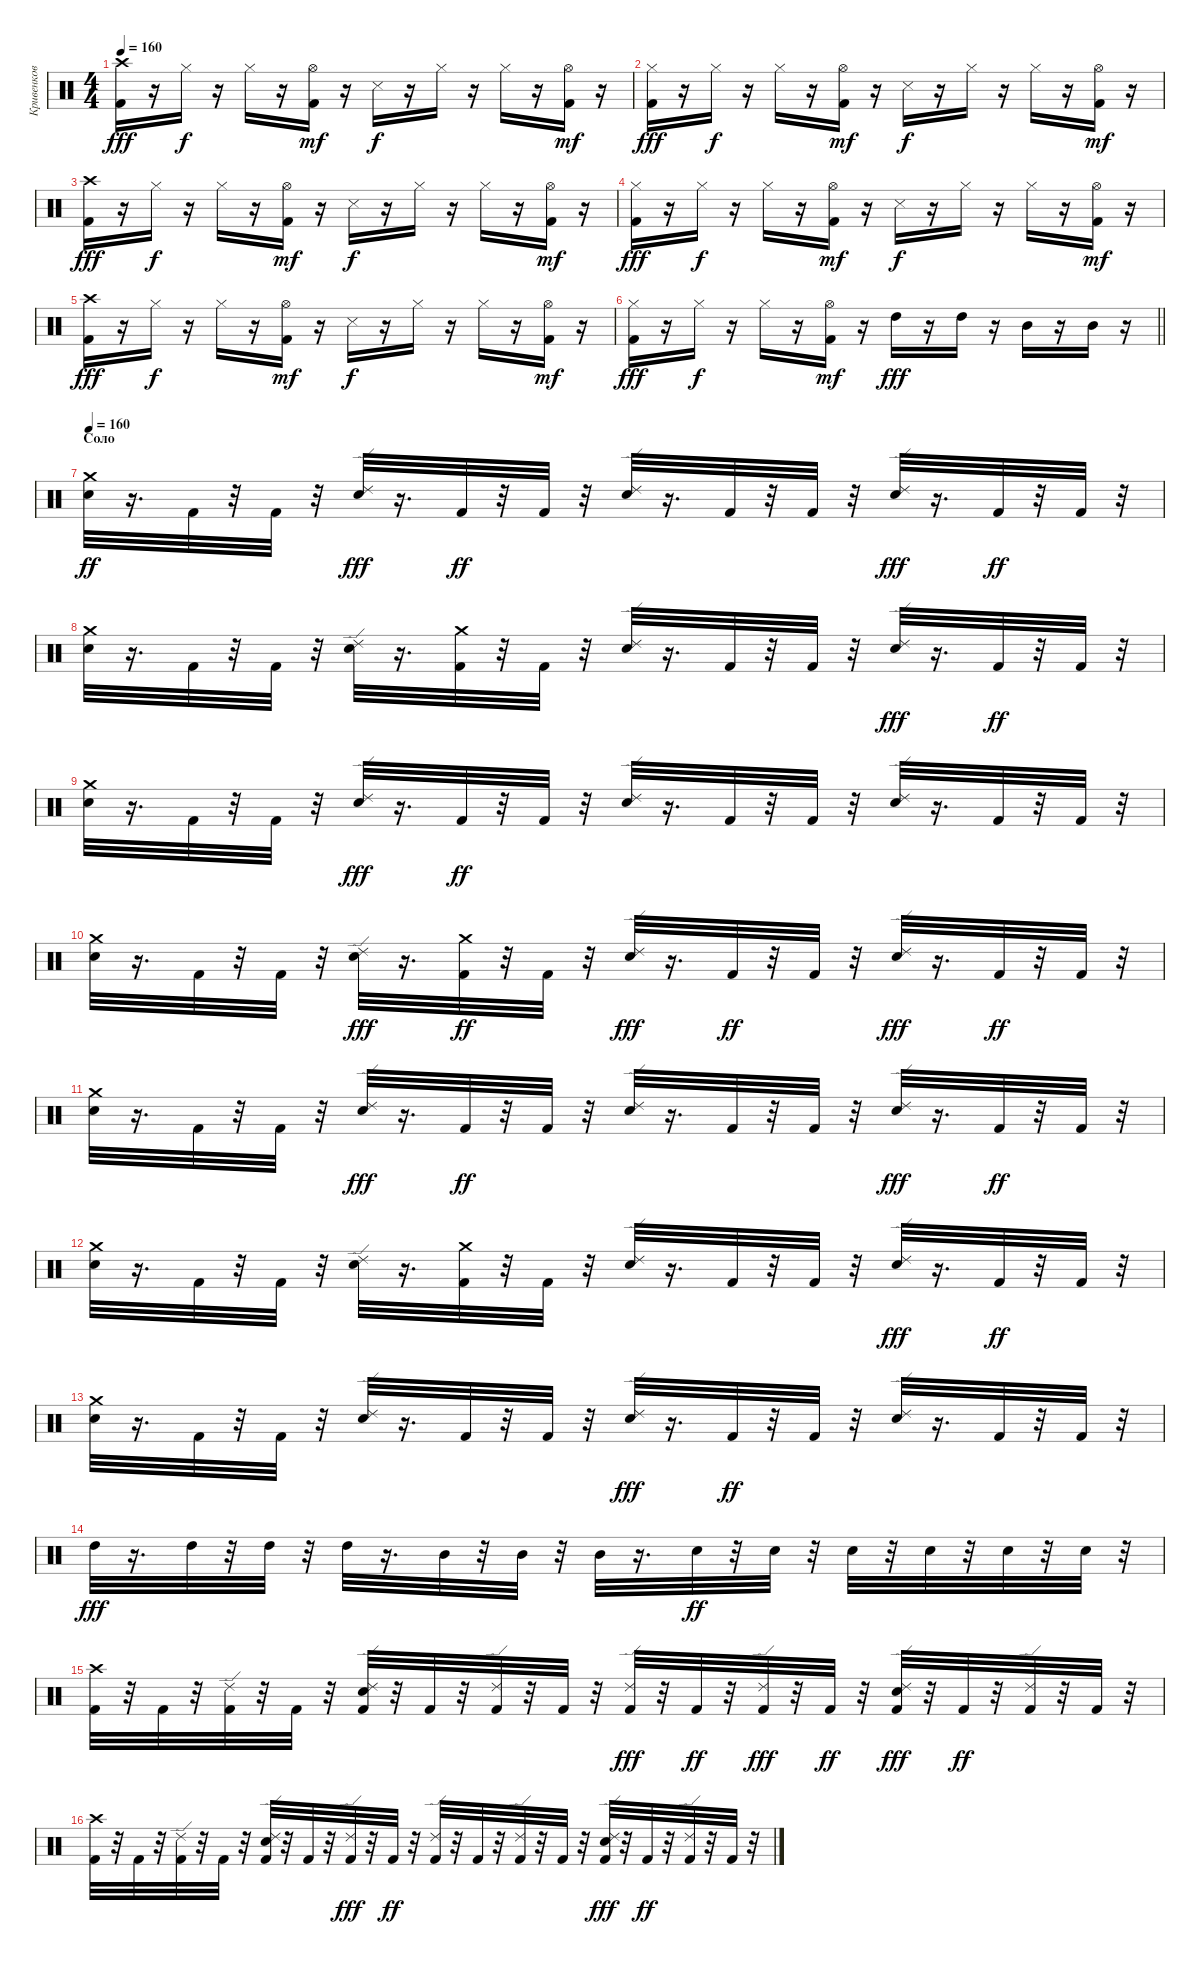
\track ("Кривенков" "Кривенков") {instrument percussion}
\staff {score}
\articulation defaults
\ts (4 4)
\tempo 160
\clef neutral
\ks c
("Crash high (hit)" "Kick (hit) 2").16{dy fff} r.16 "Hi-Hat (closed)".16{dy f} r.16 "Hi-Hat (closed)".16 r.16 ("Kick (hit) 2" "Hi-Hat (open)").16{dy mf} r.16 "Snare (side stick) 3".16{dy f} r.16 "Hi-Hat (closed)".16 r.16 "Hi-Hat (closed)".16 r.16 ("Kick (hit) 2" "Hi-Hat (open)").16{dy mf} r.16 |
("Kick (hit) 2" "Hi-Hat (closed)").16{dy fff} r.16 "Hi-Hat (closed)".16{dy f} r.16 "Hi-Hat (closed)".16 r.16 ("Kick (hit) 2" "Hi-Hat (open)").16{dy mf} r.16 "Snare (side stick) 3".16{dy f} r.16 "Hi-Hat (closed)".16 r.16 "Hi-Hat (closed)".16 r.16 ("Hi-Hat (open)" "Kick (hit) 2").16{dy mf} r.16 |
("Crash high (hit)" "Kick (hit) 2").16{dy fff} r.16 "Hi-Hat (closed)".16{dy f} r.16 "Hi-Hat (closed)".16 r.16 ("Kick (hit) 2" "Hi-Hat (open)").16{dy mf} r.16 "Snare (side stick) 3".16{dy f} r.16 "Hi-Hat (closed)".16 r.16 "Hi-Hat (closed)".16 r.16 ("Hi-Hat (open)" "Kick (hit) 2").16{dy mf} r.16 |
("Hi-Hat (closed)" "Kick (hit) 2").16{dy fff} r.16 "Hi-Hat (closed)".16{dy f} r.16 "Hi-Hat (closed)".16 r.16 ("Kick (hit) 2" "Hi-Hat (open)").16{dy mf} r.16 "Snare (side stick) 3".16{dy f} r.16 "Hi-Hat (closed)".16 r.16 "Hi-Hat (closed)".16 r.16 ("Hi-Hat (open)" "Kick (hit) 2").16{dy mf} r.16 |
("Crash high (hit)" "Kick (hit) 2").16{dy fff} r.16 "Hi-Hat (closed)".16{dy f} r.16 "Hi-Hat (closed)".16 r.16 ("Hi-Hat (open)" "Kick (hit) 2").16{dy mf} r.16 "Snare (side stick) 3".16{dy f} r.16 "Hi-Hat (closed)".16 r.16 "Hi-Hat (closed)".16 r.16 ("Kick (hit) 2" "Hi-Hat (open)").16{dy mf} r.16 |
\barLineRight lightlight
("Kick (hit) 2" "Hi-Hat (closed)").16{dy fff} r.16 "Hi-Hat (closed)".16{dy f} r.16 "Hi-Hat (closed)".16 r.16 ("Hi-Hat (open)" "Kick (hit) 2").16{dy mf} r.16 "High Tom (hit)".16{dy fff} r.16 "High Tom (hit)".16 r.16 "Mid Tom (hit)".16 r.16 "Mid Tom (hit)".16 r.16 |
\section ("" "Соло")
\tempo 160
("Electric Snare (hit)" "Crash medium (hit)").32{dy ff} r.16{d} "Kick (hit) 2".32 r.32 "Kick (hit) 2".32 r.32 ("Electric Snare (hit)" "Ride (edge) 2").32{dy fff} r.16{d} "Kick (hit) 2".32{dy ff} r.32 "Kick (hit) 2".32 r.32 ("Ride (edge) 2" "Electric Snare (hit)").32 r.16{d} "Kick (hit) 2".32 r.32 "Kick (hit) 2".32 r.32 ("Electric Snare (hit)" "Ride (edge) 2").32{dy fff} r.16{d} "Kick (hit) 2".32{dy ff} r.32 "Kick (hit) 2".32 r.32 |
("Crash medium (hit)" "Electric Snare (hit)").32 r.16{d} "Kick (hit) 2".32 r.32 "Kick (hit) 2".32 r.32 ("Ride (edge) 2" "Electric Snare (hit)").32 r.16{d} ("Crash medium (hit)" "Kick (hit) 2").32 r.32 "Kick (hit) 2".32 r.32 ("Ride (edge) 2" "Electric Snare (hit)").32 r.16{d} "Kick (hit) 2".32 r.32 "Kick (hit) 2".32 r.32 ("Electric Snare (hit)" "Ride (edge) 2").32{dy fff} r.16{d} "Kick (hit) 2".32{dy ff} r.32 "Kick (hit) 2".32 r.32 |
("Crash medium (hit)" "Electric Snare (hit)").32 r.16{d} "Kick (hit) 2".32 r.32 "Kick (hit) 2".32 r.32 ("Electric Snare (hit)" "Ride (edge) 2").32{dy fff} r.16{d} "Kick (hit) 2".32{dy ff} r.32 "Kick (hit) 2".32 r.32 ("Ride (edge) 2" "Electric Snare (hit)").32 r.16{d} "Kick (hit) 2".32 r.32 "Kick (hit) 2".32 r.32 ("Ride (edge) 2" "Electric Snare (hit)").32 r.16{d} "Kick (hit) 2".32 r.32 "Kick (hit) 2".32 r.32 |
("Crash medium (hit)" "Electric Snare (hit)").32 r.16{d} "Kick (hit) 2".32 r.32 "Kick (hit) 2".32 r.32 ("Electric Snare (hit)" "Ride (edge) 2").32{dy fff} r.16{d} ("Kick (hit) 2" "Crash medium (hit)").32{dy ff} r.32 "Kick (hit) 2".32 r.32 ("Electric Snare (hit)" "Ride (edge) 2").32{dy fff} r.16{d} "Kick (hit) 2".32{dy ff} r.32 "Kick (hit) 2".32 r.32 ("Electric Snare (hit)" "Ride (edge) 2").32{dy fff} r.16{d} "Kick (hit) 2".32{dy ff} r.32 "Kick (hit) 2".32 r.32 |
("Crash medium (hit)" "Electric Snare (hit)").32 r.16{d} "Kick (hit) 2".32 r.32 "Kick (hit) 2".32 r.32 ("Electric Snare (hit)" "Ride (edge) 2").32{dy fff} r.16{d} "Kick (hit) 2".32{dy ff} r.32 "Kick (hit) 2".32 r.32 ("Ride (edge) 2" "Electric Snare (hit)").32 r.16{d} "Kick (hit) 2".32 r.32 "Kick (hit) 2".32 r.32 ("Electric Snare (hit)" "Ride (edge) 2").32{dy fff} r.16{d} "Kick (hit) 2".32{dy ff} r.32 "Kick (hit) 2".32 r.32 |
("Electric Snare (hit)" "Crash medium (hit)").32 r.16{d} "Kick (hit) 2".32 r.32 "Kick (hit) 2".32 r.32 ("Ride (edge) 2" "Electric Snare (hit)").32 r.16{d} ("Crash medium (hit)" "Kick (hit) 2").32 r.32 "Kick (hit) 2".32 r.32 ("Ride (edge) 2" "Electric Snare (hit)").32 r.16{d} "Kick (hit) 2".32 r.32 "Kick (hit) 2".32 r.32 ("Electric Snare (hit)" "Ride (edge) 2").32{dy fff} r.16{d} "Kick (hit) 2".32{dy ff} r.32 "Kick (hit) 2".32 r.32 |
("Crash medium (hit)" "Electric Snare (hit)").32 r.16{d} "Kick (hit) 2".32 r.32 "Kick (hit) 2".32 r.32 ("Ride (edge) 2" "Electric Snare (hit)").32 r.16{d} "Kick (hit) 2".32 r.32 "Kick (hit) 2".32 r.32 ("Electric Snare (hit)" "Ride (edge) 2").32{dy fff} r.16{d} "Kick (hit) 2".32{dy ff} r.32 "Kick (hit) 2".32 r.32 ("Ride (edge) 2" "Electric Snare (hit)").32 r.16{d} "Kick (hit) 2".32 r.32 "Kick (hit) 2".32 r.32 |
"High Tom (hit)".32{dy fff} r.16{d} "High Tom (hit)".32 r.32 "High Tom (hit)".32 r.32 "High Tom (hit)".32 r.16{d} "Mid Tom (hit)".32 r.32 "Mid Tom (hit)".32 r.32 "Mid Tom (hit)".32 r.16{d} "Electric Snare (hit)".32{dy ff} r.32 "Electric Snare (hit)".32 r.32 "Electric Snare (hit)".32 r.32 "Electric Snare (hit)".32 r.32 "Electric Snare (hit)".32 r.32 "Electric Snare (hit)".32 r.32 |
("Crash high (hit)" "Kick (hit) 2").32 r.32 "Kick (hit) 2".32 r.32 ("Ride (edge) 2" "Kick (hit) 2").32 r.32 "Kick (hit) 2".32 r.32 ("Electric Snare (hit)" "Ride (edge) 2" "Kick (hit) 2").32 r.32 "Kick (hit) 2".32 r.32 ("Ride (edge) 2" "Kick (hit) 2").32 r.32 "Kick (hit) 2".32 r.32 ("Kick (hit) 2" "Ride (edge) 2").32{dy fff} r.32 "Kick (hit) 2".32{dy ff} r.32 ("Kick (hit) 2" "Ride (edge) 2").32{dy fff} r.32 "Kick (hit) 2".32{dy ff} r.32 ("Electric Snare (hit)" "Kick (hit) 2" "Ride (edge) 2").32{dy fff} r.32 "Kick (hit) 2".32{dy ff} r.32 ("Ride (edge) 2" "Kick (hit) 2").32 r.32 "Kick (hit) 2".32 r.32 |
("Crash high (hit)" "Kick (hit) 2").32 r.32 "Kick (hit) 2".32 r.32 ("Ride (edge) 2" "Kick (hit) 2").32 r.32 "Kick (hit) 2".32 r.32 ("Kick (hit) 2" "Ride (edge) 2" "Electric Snare (hit)").32 r.32 "Kick (hit) 2".32 r.32 ("Kick (hit) 2" "Ride (edge) 2").32{dy fff} r.32 "Kick (hit) 2".32{dy ff} r.32 ("Ride (edge) 2" "Kick (hit) 2").32 r.32 "Kick (hit) 2".32 r.32 ("Ride (edge) 2" "Kick (hit) 2").32 r.32 "Kick (hit) 2".32 r.32 ("Kick (hit) 2" "Electric Snare (hit)" "Ride (edge) 2").32{dy fff} r.32 "Kick (hit) 2".32{dy ff} r.32 ("Ride (edge) 2" "Kick (hit) 2").32 r.32 "Kick (hit) 2".32 r.32
